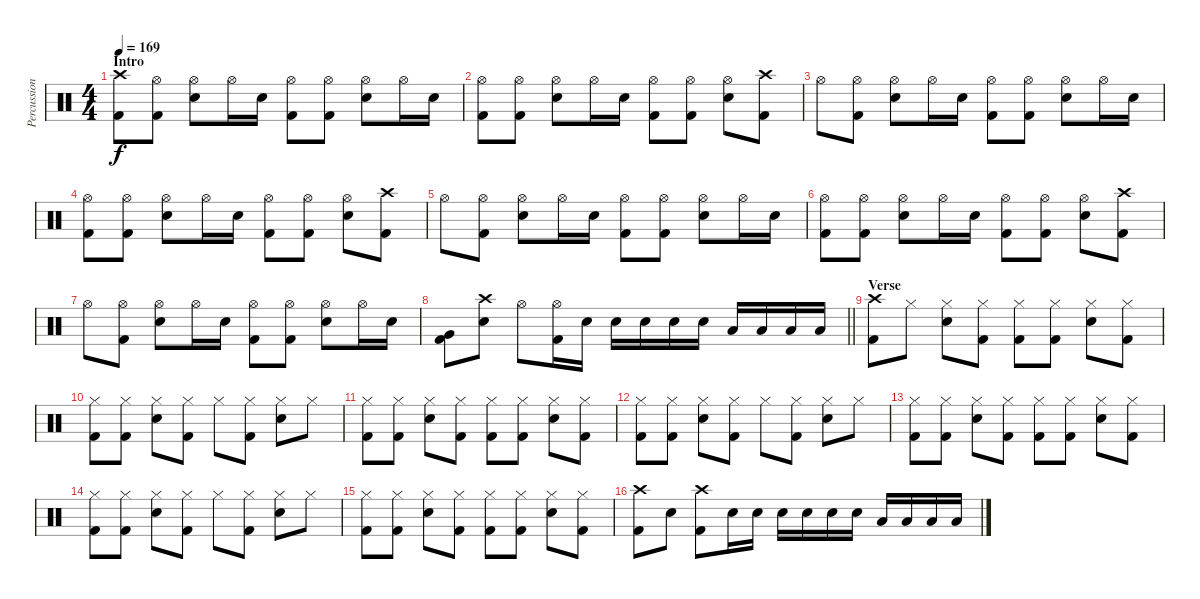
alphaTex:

\track ("Percussion" "Percussion") {instrument percussion}
\staff {score}
\articulation defaults
\ts (4 4)
\section ("" "Intro")
\tempo 169
\clef neutral
\ks c
("Crash high (hit)" "Kick (hit) 2").8{dy f} ("Hi-Hat (open)" "Kick (hit) 2").8 ("Hi-Hat (open)" "Electric Snare (hit)").8 "Hi-Hat (open)".16 "Electric Snare (hit)".16 ("Hi-Hat (open)" "Kick (hit) 2").8 ("Hi-Hat (open)" "Kick (hit) 2").8 ("Hi-Hat (open)" "Electric Snare (hit)").8 "Hi-Hat (open)".16 "Electric Snare (hit)".16 |
("Hi-Hat (open)" "Kick (hit) 2").8 ("Hi-Hat (open)" "Kick (hit) 2").8 ("Hi-Hat (open)" "Electric Snare (hit)").8 "Hi-Hat (open)".16 "Electric Snare (hit)".16 ("Hi-Hat (open)" "Kick (hit) 2").8 ("Hi-Hat (open)" "Kick (hit) 2").8 ("Hi-Hat (open)" "Electric Snare (hit)").8 ("Crash high (hit)" "Kick (hit) 2").8 |
"Hi-Hat (open)".8 ("Hi-Hat (open)" "Kick (hit) 2").8 ("Hi-Hat (open)" "Electric Snare (hit)").8 "Hi-Hat (open)".16 "Electric Snare (hit)".16 ("Hi-Hat (open)" "Kick (hit) 2").8 ("Hi-Hat (open)" "Kick (hit) 2").8 ("Hi-Hat (open)" "Electric Snare (hit)").8 "Hi-Hat (open)".16 "Electric Snare (hit)".16 |
("Hi-Hat (open)" "Kick (hit) 2").8 ("Hi-Hat (open)" "Kick (hit) 2").8 ("Hi-Hat (open)" "Electric Snare (hit)").8 "Hi-Hat (open)".16 "Electric Snare (hit)".16 ("Hi-Hat (open)" "Kick (hit) 2").8 ("Hi-Hat (open)" "Kick (hit) 2").8 ("Hi-Hat (open)" "Electric Snare (hit)").8 ("Crash high (hit)" "Kick (hit) 2").8 |
"Hi-Hat (open)".8 ("Hi-Hat (open)" "Kick (hit) 2").8 ("Hi-Hat (open)" "Electric Snare (hit)").8 "Hi-Hat (open)".16 "Electric Snare (hit)".16 ("Hi-Hat (open)" "Kick (hit) 2").8 ("Hi-Hat (open)" "Kick (hit) 2").8 ("Hi-Hat (open)" "Electric Snare (hit)").8 "Hi-Hat (open)".16 "Electric Snare (hit)".16 |
("Hi-Hat (open)" "Kick (hit) 2").8 ("Hi-Hat (open)" "Kick (hit) 2").8 ("Hi-Hat (open)" "Electric Snare (hit)").8 "Hi-Hat (open)".16 "Electric Snare (hit)".16 ("Hi-Hat (open)" "Kick (hit) 2").8 ("Hi-Hat (open)" "Kick (hit) 2").8 ("Hi-Hat (open)" "Electric Snare (hit)").8 ("Crash high (hit)" "Kick (hit) 2").8 |
"Hi-Hat (open)".8 ("Hi-Hat (open)" "Kick (hit) 2").8 ("Hi-Hat (open)" "Electric Snare (hit)").8 "Hi-Hat (open)".16 "Electric Snare (hit)".16 ("Hi-Hat (open)" "Kick (hit) 2").8 ("Hi-Hat (open)" "Kick (hit) 2").8 ("Hi-Hat (open)" "Electric Snare (hit)").8 "Hi-Hat (open)".16 "Electric Snare (hit)".16 |
\barLineRight lightlight
("Very Low Tom (hit)" "Kick (hit) 2").8 ("Crash high (hit)" "Electric Snare (hit)").8 "Hi-Hat (open)".8 ("Hi-Hat (open)" "Kick (hit) 2").16 "Electric Snare (hit)".16 "Electric Snare (hit)".16 "Electric Snare (hit)".16 "Electric Snare (hit)".16 "Electric Snare (hit)".16 "Low Tom (hit)".16 "Low Tom (hit)".16 "Low Tom (hit)".16 "Low Tom (hit)".16 |
\section ("" "Verse")
("Crash high (hit)" "Kick (hit) 2").8 "Hi-Hat (closed)".8 ("Hi-Hat (closed)" "Electric Snare (hit)").8 ("Hi-Hat (closed)" "Kick (hit) 2").8 ("Hi-Hat (closed)" "Kick (hit) 2").8 ("Hi-Hat (closed)" "Kick (hit) 2").8 ("Hi-Hat (closed)" "Electric Snare (hit)").8 ("Hi-Hat (closed)" "Kick (hit) 2").8 |
("Hi-Hat (closed)" "Kick (hit) 2").8 ("Hi-Hat (closed)" "Kick (hit) 2").8 ("Hi-Hat (closed)" "Electric Snare (hit)").8 ("Hi-Hat (closed)" "Kick (hit) 2").8 "Hi-Hat (closed)".8 ("Hi-Hat (closed)" "Kick (hit) 2").8 ("Hi-Hat (closed)" "Electric Snare (hit)").8 "Hi-Hat (closed)".8 |
("Hi-Hat (closed)" "Kick (hit) 2").8 ("Hi-Hat (closed)" "Kick (hit) 2").8 ("Hi-Hat (closed)" "Electric Snare (hit)").8 ("Hi-Hat (closed)" "Kick (hit) 2").8 ("Hi-Hat (closed)" "Kick (hit) 2").8 ("Hi-Hat (closed)" "Kick (hit) 2").8 ("Hi-Hat (closed)" "Electric Snare (hit)").8 ("Hi-Hat (closed)" "Kick (hit) 2").8 |
("Hi-Hat (closed)" "Kick (hit) 2").8 ("Hi-Hat (closed)" "Kick (hit) 2").8 ("Hi-Hat (closed)" "Electric Snare (hit)").8 ("Hi-Hat (closed)" "Kick (hit) 2").8 "Hi-Hat (closed)".8 ("Hi-Hat (closed)" "Kick (hit) 2").8 ("Hi-Hat (closed)" "Electric Snare (hit)").8 "Hi-Hat (closed)".8 |
("Hi-Hat (closed)" "Kick (hit) 2").8 ("Hi-Hat (closed)" "Kick (hit) 2").8 ("Hi-Hat (closed)" "Electric Snare (hit)").8 ("Hi-Hat (closed)" "Kick (hit) 2").8 ("Hi-Hat (closed)" "Kick (hit) 2").8 ("Hi-Hat (closed)" "Kick (hit) 2").8 ("Hi-Hat (closed)" "Electric Snare (hit)").8 ("Hi-Hat (closed)" "Kick (hit) 2").8 |
("Hi-Hat (closed)" "Kick (hit) 2").8 ("Hi-Hat (closed)" "Kick (hit) 2").8 ("Hi-Hat (closed)" "Electric Snare (hit)").8 ("Hi-Hat (closed)" "Kick (hit) 2").8 "Hi-Hat (closed)".8 ("Hi-Hat (closed)" "Kick (hit) 2").8 ("Hi-Hat (closed)" "Electric Snare (hit)").8 "Hi-Hat (closed)".8 |
("Hi-Hat (closed)" "Kick (hit) 2").8 ("Hi-Hat (closed)" "Kick (hit) 2").8 ("Hi-Hat (closed)" "Electric Snare (hit)").8 ("Hi-Hat (closed)" "Kick (hit) 2").8 ("Hi-Hat (closed)" "Kick (hit) 2").8 ("Hi-Hat (closed)" "Kick (hit) 2").8 ("Hi-Hat (closed)" "Electric Snare (hit)").8 ("Hi-Hat (closed)" "Kick (hit) 2").8 |
("Crash high (hit)" "Kick (hit) 2").8 "Electric Snare (hit)".8 ("Crash high (hit)" "Kick (hit) 2").8 "Electric Snare (hit)".16 "Electric Snare (hit)".16 "Electric Snare (hit)".16 "Electric Snare (hit)".16 "Electric Snare (hit)".16 "Electric Snare (hit)".16 "Low Floor Tom (hit)".16 "Low Floor Tom (hit)".16 "Low Floor Tom (hit)".16 "Low Floor Tom (hit)".16
